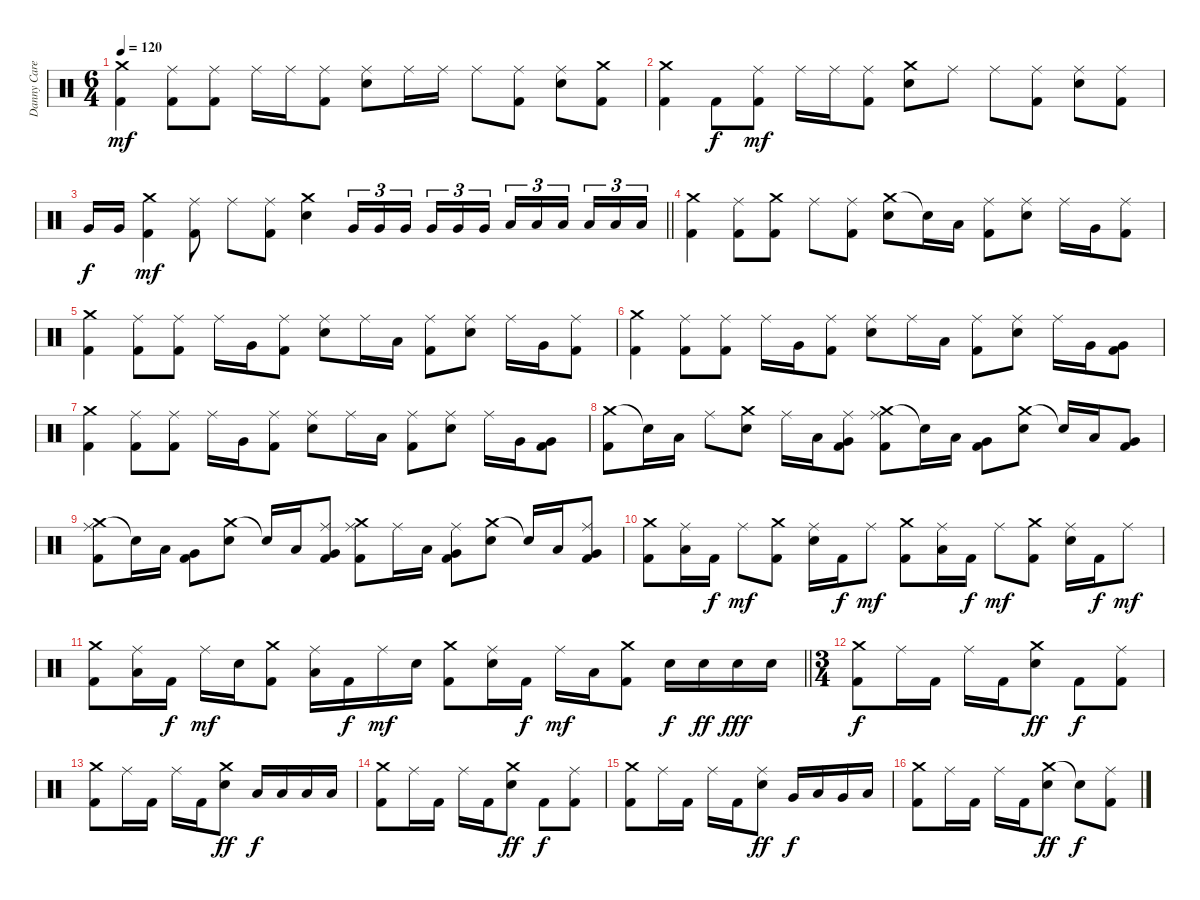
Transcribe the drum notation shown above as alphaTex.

\track ("Danny Carey" "Danny Care") {instrument percussion}
\staff {score}
\articulation defaults
\ts (6 4)
\tempo 120
\clef neutral
\ks c
("Crash medium (hit)" "Kick (hit) 2").4{dy mf} ("Ride (middle)" "Kick (hit) 2").8 ("Ride (middle)" "Kick (hit) 2").8 "Ride (middle)".16 "Ride (middle)".16 ("Ride (middle)" "Kick (hit) 2").8 ("Ride (middle)" "Snare (hit) 2").8 "Ride (middle)".16 "Ride (middle)".16 "Ride (middle)".8 ("Ride (middle)" "Kick (hit) 2").8 ("Ride (middle)" "Snare (hit) 2").8 ("Crash medium (hit)" "Kick (hit) 2").8 |
("Crash medium (hit)" "Kick (hit) 2").4 "Kick (hit) 2".8{dy f} ("Ride (middle)" "Kick (hit) 2").8{dy mf} "Ride (middle)".16 "Ride (middle)".16 ("Ride (middle)" "Kick (hit) 2").8 ("Crash medium (hit)" "Snare (hit) 2").8 "Ride (middle)".8 "Ride (middle)".8 ("Ride (middle)" "Kick (hit) 2").8 ("Ride (middle)" "Snare (hit) 2").8 ("Ride (middle)" "Kick (hit) 2").8 |
\barLineRight lightlight "Very Low Tom (hit)".16{dy f} "Very Low Tom (hit)".16
("Crash medium (hit)" "Kick (hit) 2").4{dy mf} ("Ride (middle)" "Kick (hit) 2").8 "Ride (middle)".8 ("Ride (middle)" "Kick (hit) 2").8 ("Crash medium (hit)" "Snare (hit) 2").4 "Very Low Tom (hit)".16{tu (3 2)} "Very Low Tom (hit)".16{tu (3 2)} "Very Low Tom (hit)".16{tu (3 2) beam splitsecondary} "Very Low Tom (hit)".16{tu (3 2)} "Very Low Tom (hit)".16{tu (3 2)} "Very Low Tom (hit)".16{tu (3 2) beam splitsecondary} "Low Floor Tom (hit)".16{tu (3 2)} "Low Floor Tom (hit)".16{tu (3 2)} "Low Floor Tom (hit)".16{tu (3 2) beam splitsecondary} "Low Floor Tom (hit)".16{tu (3 2)} "Low Floor Tom (hit)".16{tu (3 2)} "Low Floor Tom (hit)".16{tu (3 2)} |
\section ("" "")
("Crash medium (hit)" "Kick (hit) 2").4 ("Ride (middle)" "Kick (hit) 2").8 ("Crash medium (hit)" "Kick (hit) 2").8 "Ride (middle)".8 ("Ride (middle)" "Kick (hit) 2").8 ("Crash medium (hit)" "Snare (hit) 2").8 "Snare (hit)"{t}.16 "Low Tom (hit)".16 ("Ride (middle)" "Kick (hit) 2").8 ("Ride (middle)" "Snare (hit) 2").8 "Ride (middle)".16 "Very Low Tom (hit)".16 ("Ride (middle)" "Kick (hit) 2").8 |
("Crash medium (hit)" "Kick (hit) 2").4 ("Ride (middle)" "Kick (hit) 2").8 ("Ride (middle)" "Kick (hit) 2").8 "Ride (middle)".16 "Very Low Tom (hit)".16 ("Ride (middle)" "Kick (hit) 2").8 ("Ride (middle)" "Snare (hit) 2").8 "Ride (middle)".16 "Low Tom (hit)".16 ("Ride (middle)" "Kick (hit) 2").8 ("Ride (middle)" "Snare (hit) 2").8 "Ride (middle)".16 "Very Low Tom (hit)".16 ("Ride (middle)" "Kick (hit) 2").8 |
("Crash medium (hit)" "Kick (hit) 2").4 ("Ride (middle)" "Kick (hit) 2").8 ("Ride (middle)" "Kick (hit) 2").8 "Ride (middle)".16 "Very Low Tom (hit)".16 ("Ride (middle)" "Kick (hit) 2").8 ("Ride (middle)" "Snare (hit) 2").8 "Ride (middle)".16 "Low Tom (hit)".16 ("Ride (middle)" "Kick (hit) 2").8 ("Ride (middle)" "Snare (hit) 2").8 "Ride (middle)".16 "Very Low Tom (hit)".16 ("Very Low Tom (hit)" "Kick (hit) 2").8 |
("Crash medium (hit)" "Kick (hit) 2").4 ("Ride (middle)" "Kick (hit) 2").8 ("Ride (middle)" "Kick (hit) 2").8 "Ride (middle)".16 "Very Low Tom (hit)".16 ("Ride (middle)" "Kick (hit) 2").8 ("Ride (middle)" "Snare (hit) 2").8 "Ride (middle)".16 "Low Tom (hit)".16 ("Ride (middle)" "Kick (hit) 2").8 ("Ride (middle)" "Snare (hit) 2").8 "Ride (middle)".16 "Very Low Tom (hit)".16 ("Very Low Tom (hit)" "Kick (hit) 2").8 |
("Crash medium (hit)" "Kick (hit) 2").8 "Snare (hit)"{t}.16 "Low Tom (hit)".16 "Ride (middle)".8 ("Crash medium (hit)" "Snare (hit) 2").8 "Ride (middle)".16 "Low Tom (hit)".16 ("Ride (middle)" "Very Low Tom (hit)" "Kick (hit) 2").8 ("Crash medium (hit)" "Ride (middle)" "Kick (hit) 2").8 "Snare (hit)"{t}.16 "Low Tom (hit)".16 ("Very Low Tom (hit)" "Kick (hit) 2").8 ("Crash medium (hit)" "Snare (hit) 2").8 "Snare (hit)"{t}.16 "Low Tom (hit)".16 ("Very Low Tom (hit)" "Kick (hit) 2").8 |
("Crash medium (hit)" "Ride (middle)" "Kick (hit) 2").8 "Snare (hit)"{t}.16 "Low Tom (hit)".16 ("Very Low Tom (hit)" "Kick (hit) 2").8 ("Crash medium (hit)" "Snare (hit) 2").8 "Snare (hit)"{t}.16 "Low Tom (hit)".16 ("Ride (middle)" "Very Low Tom (hit)" "Kick (hit) 2").8 ("Crash medium (hit)" "Ride (middle)" "Kick (hit) 2").8 "Ride (middle)".16 "Low Tom (hit)".16 ("Ride (middle)" "Very Low Tom (hit)" "Kick (hit) 2").8 ("Crash medium (hit)" "Snare (hit) 2").8 "Snare (hit)"{t}.16 "Low Tom (hit)".16 ("Ride (middle)" "Very Low Tom (hit)" "Kick (hit) 2").8 |
("Crash medium (hit)" "Kick (hit) 2").8 ("Ride (middle)" "Low Tom (hit)").16 "Kick (hit) 2".16{dy f} "Ride (middle)".8{dy mf} ("Crash medium (hit)" "Kick (hit) 2").8 ("Ride (middle)" "Snare (hit) 2").16 "Kick (hit) 2".16{dy f} "Ride (middle)".8{dy mf} ("Crash medium (hit)" "Kick (hit) 2").8 ("Ride (middle)" "Low Tom (hit)").16 "Kick (hit) 2".16{dy f} "Ride (middle)".8{dy mf} ("Crash medium (hit)" "Kick (hit) 2").8 ("Ride (middle)" "Snare (hit) 2").16 "Kick (hit) 2".16{dy f} "Ride (middle)".8{dy mf} |
\barLineRight lightlight
("Crash medium (hit)" "Kick (hit) 2").8 ("Ride (middle)" "Low Tom (hit)").16 "Kick (hit) 2".16{dy f} "Ride (middle)".16{dy mf} "Snare (hit) 2".16 ("Crash medium (hit)" "Kick (hit) 2").8 ("Ride (middle)" "Low Tom (hit)").16 "Kick (hit) 2".16{dy f} "Ride (middle)".16{dy mf} "Snare (hit) 2".16 ("Crash medium (hit)" "Kick (hit) 2").8 ("Ride (middle)" "Snare (hit) 2").16 "Kick (hit) 2".16{dy f} "Ride (middle)".16{dy mf} "Low Tom (hit)".16 ("Crash medium (hit)" "Kick (hit) 2").8 "Snare (hit) 2".16{dy f} "Snare (hit) 2".16{dy ff} "Snare (hit) 2".16{dy fff} "Snare (hit) 2".16 |
\ts (3 4)
\section ("" "")
("Crash medium (hit)" "Kick (hit) 2").8{dy f} "Ride (middle)".16 "Kick (hit) 2".16 "Ride (middle)".16 "Kick (hit) 2".16 ("Crash medium (hit)" "Snare (hit) 2").8{dy ff} "Kick (hit) 2".8{dy f} ("Ride (middle)" "Kick (hit) 2").8 |
("Crash medium (hit)" "Kick (hit) 2").8 "Ride (middle)".16 "Kick (hit) 2".16 "Ride (middle)".16 "Kick (hit) 2".16 ("Crash medium (hit)" "Snare (hit) 2").8{dy ff} "Low Tom (hit)".16{dy f} "Low Tom (hit)".16 "Low Tom (hit)".16 "Low Tom (hit)".16 |
("Crash medium (hit)" "Kick (hit) 2").8 "Ride (middle)".16 "Kick (hit) 2".16 "Ride (middle)".16 "Kick (hit) 2".16 ("Crash medium (hit)" "Snare (hit) 2").8{dy ff} "Kick (hit) 2".8{dy f} ("Ride (middle)" "Kick (hit) 2").8 |
("Crash medium (hit)" "Kick (hit) 2").8 "Ride (middle)".16 "Kick (hit) 2".16 "Ride (middle)".16 "Kick (hit) 2".16 ("Ride (middle)" "Snare (hit) 2").8{dy ff} "Very Low Tom (hit)".16{dy f} "Low Tom (hit)".16 "Very Low Tom (hit)".16 "Low Floor Tom (hit)".16 |
("Crash medium (hit)" "Kick (hit) 2").8 "Ride (middle)".16 "Kick (hit) 2".16 "Ride (middle)".16 "Kick (hit) 2".16 ("Crash medium (hit)" "Snare (hit) 2").8{dy ff} "Snare (hit)"{t}.8{dy f} ("Ride (middle)" "Kick (hit) 2").8
